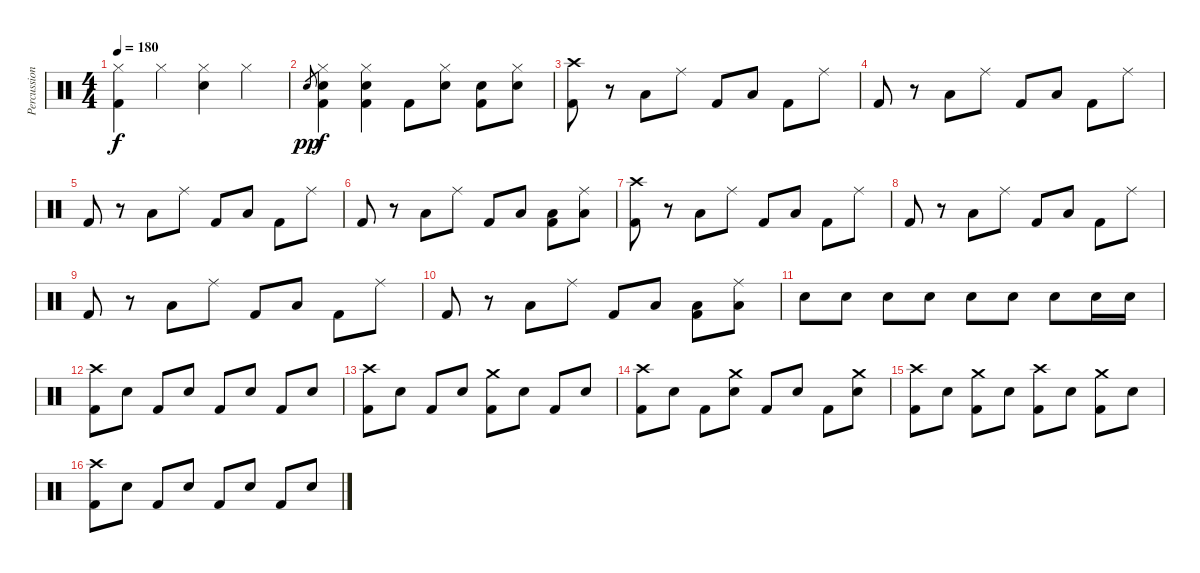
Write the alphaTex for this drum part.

\track ("Percussions" "Percussion") {instrument percussion}
\staff {score}
\articulation defaults
\ts (4 4)
\tempo 180
\clef neutral
\ks c
("Hi-Hat (closed)" "Kick (hit) 2").4{dy f} "Hi-Hat (closed)".4 ("Hi-Hat (closed)" "Snare (hit) 2").4 "Hi-Hat (closed)".4 |
"Snare (hit) 2".8{gr dy pp} ("Hi-Hat (closed)" "Electric Snare (hit)" "Kick (hit) 2").4{dy f} ("Hi-Hat (closed)" "Electric Snare (hit)" "Kick (hit) 2").4 "Kick (hit) 2".8 ("Hi-Hat (closed)" "Electric Snare (hit)").8 ("Electric Snare (hit)" "Kick (hit) 2").8 ("Hi-Hat (closed)" "Electric Snare (hit)").8 |
("Crash high (hit)" "Kick (hit) 2").8 r.8 "Low Tom (hit)".8 "Ride (middle)".8 "Kick (hit) 2".8 "Low Tom (hit)".8 "Kick (hit) 2".8 "Ride (middle)".8 |
"Kick (hit) 2".8 r.8 "Low Tom (hit)".8 "Ride (middle)".8 "Kick (hit) 2".8 "Low Tom (hit)".8 "Kick (hit) 2".8 "Ride (middle)".8 |
"Kick (hit) 2".8 r.8 "Low Tom (hit)".8 "Ride (middle)".8 "Kick (hit) 2".8 "Low Tom (hit)".8 "Kick (hit) 2".8 "Ride (middle)".8 |
"Kick (hit) 2".8 r.8 "Low Tom (hit)".8 "Ride (middle)".8 "Kick (hit) 2".8 "Low Tom (hit)".8 ("Low Floor Tom (hit)" "Kick (hit) 2").8 ("Ride (middle)" "Low Floor Tom (hit)").8 |
("Crash high (hit)" "Kick (hit) 2").8 r.8 "Low Tom (hit)".8 "Ride (middle)".8 "Kick (hit) 2".8 "Low Tom (hit)".8 "Kick (hit) 2".8 "Ride (middle)".8 |
"Kick (hit) 2".8 r.8 "Low Tom (hit)".8 "Ride (middle)".8 "Kick (hit) 2".8 "Low Tom (hit)".8 "Kick (hit) 2".8 "Ride (middle)".8 |
"Kick (hit) 2".8 r.8 "Low Tom (hit)".8 "Ride (middle)".8 "Kick (hit) 2".8 "Low Tom (hit)".8 "Kick (hit) 2".8 "Ride (middle)".8 |
"Kick (hit) 2".8 r.8 "Low Tom (hit)".8 "Ride (middle)".8 "Kick (hit) 2".8 "Low Tom (hit)".8 ("Low Floor Tom (hit)" "Kick (hit) 2").8 ("Ride (middle)" "Low Floor Tom (hit)").8 |
"Electric Snare (hit)".8 "Electric Snare (hit)".8 "Electric Snare (hit)".8 "Electric Snare (hit)".8 "Electric Snare (hit)".8 "Electric Snare (hit)".8 "Electric Snare (hit)".8 "Electric Snare (hit)".16 "Electric Snare (hit)".16 |
("Crash high (hit)" "Kick (hit) 2").8 "Electric Snare (hit)".8 "Kick (hit) 2".8 "Electric Snare (hit)".8 "Kick (hit) 2".8 "Electric Snare (hit)".8 "Kick (hit) 2".8 "Electric Snare (hit)".8 |
("Crash high (hit)" "Kick (hit) 2").8 "Electric Snare (hit)".8 "Kick (hit) 2".8 "Electric Snare (hit)".8 ("Crash medium (hit)" "Kick (hit) 2").8 "Electric Snare (hit)".8 "Kick (hit) 2".8 "Electric Snare (hit)".8 |
("Crash high (hit)" "Kick (hit) 2").8 "Electric Snare (hit)".8 "Kick (hit) 2".8 ("Crash medium (hit)" "Electric Snare (hit)").8 "Kick (hit) 2".8 "Electric Snare (hit)".8 "Kick (hit) 2".8 ("Crash medium (hit)" "Electric Snare (hit)").8 |
("Crash high (hit)" "Kick (hit) 2").8 "Electric Snare (hit)".8 ("Crash medium (hit)" "Kick (hit) 2").8 "Electric Snare (hit)".8 ("Crash high (hit)" "Kick (hit) 2").8 "Electric Snare (hit)".8 ("Crash medium (hit)" "Kick (hit) 2").8 "Electric Snare (hit)".8 |
("Crash high (hit)" "Kick (hit) 2").8 "Electric Snare (hit)".8 "Kick (hit) 2".8 "Electric Snare (hit)".8 "Kick (hit) 2".8 "Electric Snare (hit)".8 "Kick (hit) 2".8 "Electric Snare (hit)".8
